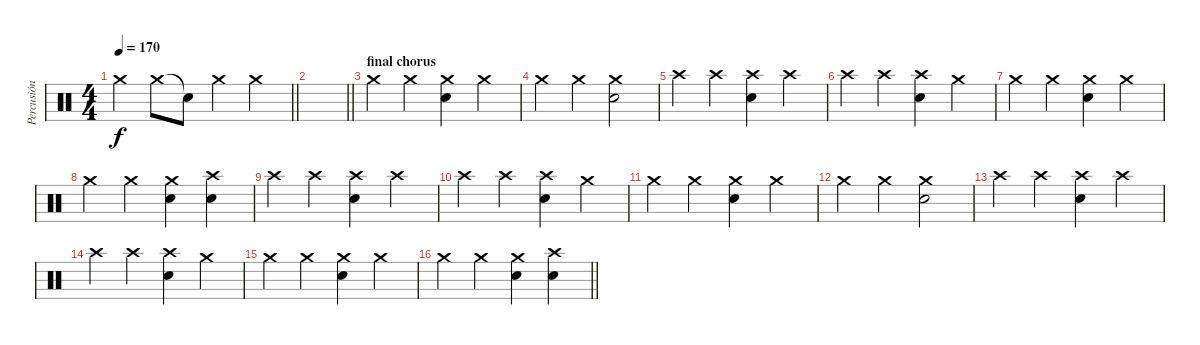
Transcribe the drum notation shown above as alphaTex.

\track ("Percusión" "Percusión") {instrument percussion}
\staff {score}
\articulation defaults
\ts (4 4)
\tempo 170
\clef neutral
\barLineRight lightlight
\ks c "Crash medium (hit)".4{dy f} "Crash medium (hit)".8 "Snare (hit)"{t}.8 "Crash medium (hit)".4 "Crash medium (hit)".4
|
\barLineRight lightlight
|
\section ("" "final chorus")
"Crash medium (hit)".4 "Crash medium (hit)".4 ("Crash medium (hit)" "Electric Snare (hit)").4 "Crash medium (hit)".4 |
"Crash medium (hit)".4 "Crash medium (hit)".4 ("Crash medium (hit)" "Electric Snare (hit)").2 |
"Crash high (hit)".4 "Crash high (hit)".4 ("Crash high (hit)" "Electric Snare (hit)").4 "Crash high (hit)".4 |
"Crash high (hit)".4 "Crash high (hit)".4 ("Electric Snare (hit)" "Crash high (hit)").4 "Crash medium (hit)".4 |
"Crash medium (hit)".4 "Crash medium (hit)".4 ("Crash medium (hit)" "Electric Snare (hit)").4 "Crash medium (hit)".4 |
"Crash medium (hit)".4 "Crash medium (hit)".4 ("Crash medium (hit)" "Electric Snare (hit)").4 ("Crash high (hit)" "Electric Snare (hit)").4 |
"Crash high (hit)".4 "Crash high (hit)".4 ("Crash high (hit)" "Electric Snare (hit)").4 "Crash high (hit)".4 |
"Crash high (hit)".4 "Crash high (hit)".4 ("Electric Snare (hit)" "Crash high (hit)").4 "Crash medium (hit)".4 |
"Crash medium (hit)".4 "Crash medium (hit)".4 ("Crash medium (hit)" "Electric Snare (hit)").4 "Crash medium (hit)".4 |
"Crash medium (hit)".4 "Crash medium (hit)".4 ("Crash medium (hit)" "Electric Snare (hit)").2 |
"Crash high (hit)".4 "Crash high (hit)".4 ("Crash high (hit)" "Electric Snare (hit)").4 "Crash high (hit)".4 |
"Crash high (hit)".4 "Crash high (hit)".4 ("Electric Snare (hit)" "Crash high (hit)").4 "Crash medium (hit)".4 |
"Crash medium (hit)".4 "Crash medium (hit)".4 ("Crash medium (hit)" "Electric Snare (hit)").4 "Crash medium (hit)".4 |
\barLineRight lightlight "Crash medium (hit)".4 "Crash medium (hit)".4
("Crash medium (hit)" "Electric Snare (hit)").4 ("Crash high (hit)" "Electric Snare (hit)").4
